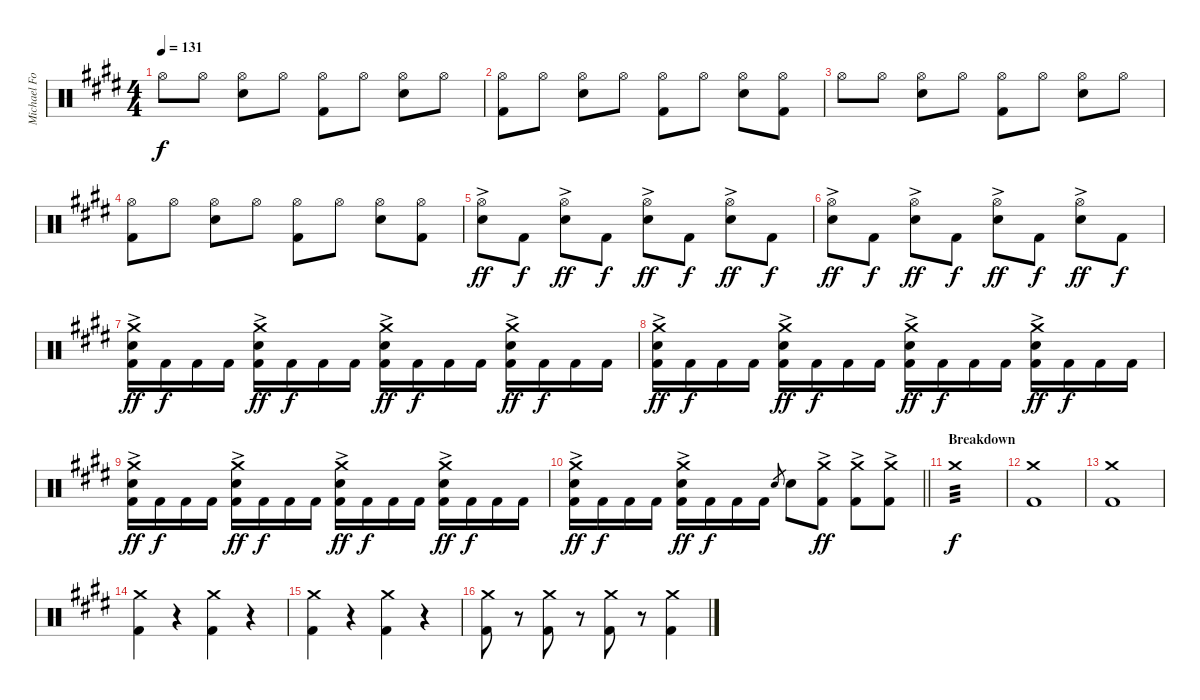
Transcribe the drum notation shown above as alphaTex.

\track ("Michael Foster Drums" "Michael Fo") {instrument percussion}
\staff {score}
\articulation defaults
\ts (4 4)
\tempo 131
\clef neutral
\ks e "Hi-Hat (open)".8{dy f} "Hi-Hat (open)".8
("Hi-Hat (open)" "Snare (hit) 2").8 "Hi-Hat (open)".8 ("Hi-Hat (open)" "Kick (hit) 2").8 "Hi-Hat (open)".8 ("Hi-Hat (open)" "Snare (hit) 2").8 "Hi-Hat (open)".8 |
("Hi-Hat (open)" "Kick (hit) 2").8 "Hi-Hat (open)".8 ("Hi-Hat (open)" "Snare (hit) 2").8 "Hi-Hat (open)".8 ("Hi-Hat (open)" "Kick (hit) 2").8 "Hi-Hat (open)".8 ("Hi-Hat (open)" "Snare (hit) 2").8 ("Hi-Hat (open)" "Kick (hit) 2").8 |
"Hi-Hat (open)".8 "Hi-Hat (open)".8 ("Hi-Hat (open)" "Snare (hit) 2").8 "Hi-Hat (open)".8 ("Hi-Hat (open)" "Kick (hit) 2").8 "Hi-Hat (open)".8 ("Hi-Hat (open)" "Snare (hit) 2").8 "Hi-Hat (open)".8 |
("Hi-Hat (open)" "Kick (hit) 2").8 "Hi-Hat (open)".8 ("Hi-Hat (open)" "Snare (hit) 2").8 "Hi-Hat (open)".8 ("Hi-Hat (open)" "Kick (hit) 2").8 "Hi-Hat (open)".8 ("Hi-Hat (open)" "Snare (hit) 2").8 ("Hi-Hat (open)" "Kick (hit) 2").8 |
("Hi-Hat (open)" "Snare (hit) 2"{ac}).8{dy ff} "Kick (hit) 2".8{dy f} ("Hi-Hat (open)" "Snare (hit) 2"{ac}).8{dy ff} "Kick (hit) 2".8{dy f} ("Hi-Hat (open)" "Snare (hit) 2"{ac}).8{dy ff} "Kick (hit) 2".8{dy f} ("Hi-Hat (open)" "Snare (hit) 2"{ac}).8{dy ff} "Kick (hit) 2".8{dy f} |
("Hi-Hat (open)" "Snare (hit) 2"{ac}).8{dy ff} "Kick (hit) 2".8{dy f} ("Hi-Hat (open)" "Snare (hit) 2"{ac}).8{dy ff} "Kick (hit) 2".8{dy f} ("Hi-Hat (open)" "Snare (hit) 2"{ac}).8{dy ff} "Kick (hit) 2".8{dy f} ("Hi-Hat (open)" "Snare (hit) 2"{ac}).8{dy ff} "Kick (hit) 2".8{dy f} |
("Crash medium (hit)"{ac} "Snare (hit) 2" "Kick (hit) 2").16{dy ff} "Kick (hit) 2".16{dy f} "Kick (hit) 2".16 "Kick (hit) 2".16 ("Crash medium (hit)"{ac} "Snare (hit) 2" "Kick (hit) 2").16{dy ff} "Kick (hit) 2".16{dy f} "Kick (hit) 2".16 "Kick (hit) 2".16 ("Crash medium (hit)"{ac} "Snare (hit) 2" "Kick (hit) 2").16{dy ff} "Kick (hit) 2".16{dy f} "Kick (hit) 2".16 "Kick (hit) 2".16 ("Crash medium (hit)"{ac} "Snare (hit) 2" "Kick (hit) 2").16{dy ff} "Kick (hit) 2".16{dy f} "Kick (hit) 2".16 "Kick (hit) 2".16 |
("Crash medium (hit)"{ac} "Snare (hit) 2" "Kick (hit) 2").16{dy ff} "Kick (hit) 2".16{dy f} "Kick (hit) 2".16 "Kick (hit) 2".16 ("Crash medium (hit)"{ac} "Snare (hit) 2" "Kick (hit) 2").16{dy ff} "Kick (hit) 2".16{dy f} "Kick (hit) 2".16 "Kick (hit) 2".16 ("Crash medium (hit)"{ac} "Snare (hit) 2" "Kick (hit) 2").16{dy ff} "Kick (hit) 2".16{dy f} "Kick (hit) 2".16 "Kick (hit) 2".16 ("Crash medium (hit)"{ac} "Snare (hit) 2" "Kick (hit) 2").16{dy ff} "Kick (hit) 2".16{dy f} "Kick (hit) 2".16 "Kick (hit) 2".16 |
("Crash medium (hit)"{ac} "Snare (hit) 2" "Kick (hit) 2").16{dy ff} "Kick (hit) 2".16{dy f} "Kick (hit) 2".16 "Kick (hit) 2".16 ("Crash medium (hit)"{ac} "Snare (hit) 2" "Kick (hit) 2").16{dy ff} "Kick (hit) 2".16{dy f} "Kick (hit) 2".16 "Kick (hit) 2".16 ("Crash medium (hit)"{ac} "Snare (hit) 2" "Kick (hit) 2").16{dy ff} "Kick (hit) 2".16{dy f} "Kick (hit) 2".16 "Kick (hit) 2".16 ("Crash medium (hit)"{ac} "Snare (hit) 2" "Kick (hit) 2").16{dy ff} "Kick (hit) 2".16{dy f} "Kick (hit) 2".16 "Kick (hit) 2".16 |
\barLineRight lightlight
("Crash medium (hit)"{ac} "Snare (hit) 2" "Kick (hit) 2").16{dy ff} "Kick (hit) 2".16{dy f} "Kick (hit) 2".16 "Kick (hit) 2".16 ("Crash medium (hit)"{ac} "Snare (hit) 2" "Kick (hit) 2").16{dy ff} "Kick (hit) 2".16{dy f} "Kick (hit) 2".16 "Kick (hit) 2".16 "Snare (hit) 2".8{gr} "Snare (hit) 2".8 ("Crash medium (hit)"{ac} "Kick (hit) 2"{ac}).8{dy ff} ("Crash medium (hit)"{ac} "Kick (hit) 2"{ac}).8 ("Crash medium (hit)"{ac} "Kick (hit) 2"{ac}).8 |
\section ("" "Breakdown")
"Crash medium (hit)".1{tp 3 dy f} |
("Crash medium (hit)" "Kick (hit) 2").1 |
("Crash medium (hit)" "Kick (hit) 2").1 |
("Crash medium (hit)" "Kick (hit) 2").4 r.4 ("Crash medium (hit)" "Kick (hit) 2").4 r.4 |
("Crash medium (hit)" "Kick (hit) 2").4 r.4 ("Crash medium (hit)" "Kick (hit) 2").4 r.4 |
("Crash medium (hit)" "Kick (hit) 2").8 r.8 ("Crash medium (hit)" "Kick (hit) 2").8 r.8 ("Crash medium (hit)" "Kick (hit) 2").8 r.8 ("Crash medium (hit)" "Kick (hit) 2").4
